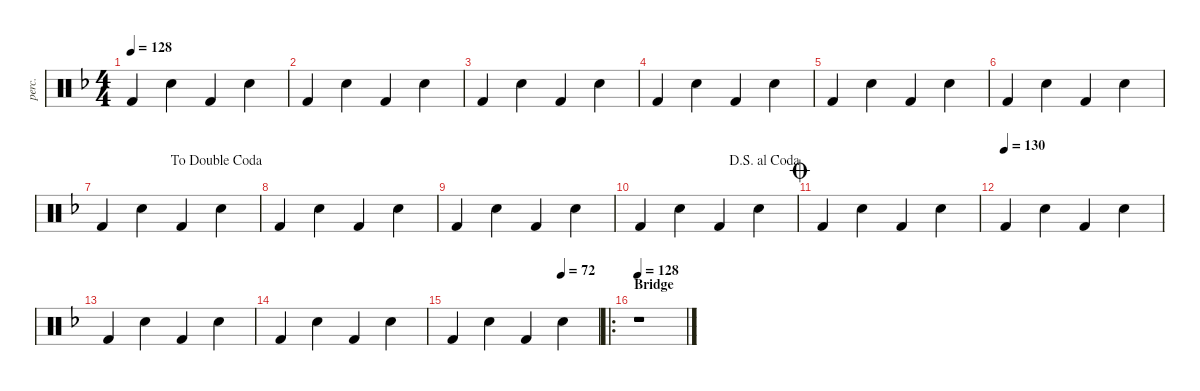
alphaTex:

\defaultSystemsLayout 2
\hideDynamics
\bracketExtendMode groupsimilarinstruments
\otherSystemsTrackNameOrientation horizontal
\track ("Guitar Percussion" "perc.") {instrument percussion}
\staff {score}
\articulation defaults
\ts (4 4)
\scale
1.04549
\tempo 128
\accidentals auto
\clef neutral
\ottava regular
\simile none
\ks dminor "Kick (hit) 2"{acc forcenatural}.4{dy mf} "Snare (hit) 2"{acc forcenatural}.4 "Kick (hit) 2"{acc forcenatural}.4 "Snare (hit) 2"{acc forcenatural}.4
|
\scale
0.954505 "Kick (hit) 2"{acc forcenatural}.4 "Snare (hit) 2"{acc forcenatural}.4 "Kick (hit) 2"{acc forcenatural}.4 "Snare (hit) 2"{acc forcenatural}.4 |
\scale
1.04549 "Kick (hit) 2"{acc forcenatural}.4 "Snare (hit) 2"{acc forcenatural}.4 "Kick (hit) 2"{acc forcenatural}.4 "Snare (hit) 2"{acc forcenatural}.4 |
\scale
0.954505 "Kick (hit) 2"{acc forcenatural}.4 "Snare (hit) 2"{acc forcenatural}.4 "Kick (hit) 2"{acc forcenatural}.4 "Snare (hit) 2"{acc forcenatural}.4 |
\scale
1.04549 "Kick (hit) 2"{acc forcenatural}.4 "Snare (hit) 2"{acc forcenatural}.4 "Kick (hit) 2"{acc forcenatural}.4 "Snare (hit) 2"{acc forcenatural}.4 |
\scale
0.954505 "Kick (hit) 2"{acc forcenatural}.4 "Snare (hit) 2"{acc forcenatural}.4 "Kick (hit) 2"{acc forcenatural}.4 "Snare (hit) 2"{acc forcenatural}.4 |
\scale
1.04549
\jump dadoublecoda "Kick (hit) 2"{acc forcenatural}.4 "Snare (hit) 2"{acc forcenatural}.4 "Kick (hit) 2"{acc forcenatural}.4 "Snare (hit) 2"{acc forcenatural}.4
|
\scale
0.954505 "Kick (hit) 2"{acc forcenatural}.4 "Snare (hit) 2"{acc forcenatural}.4 "Kick (hit) 2"{acc forcenatural}.4 "Snare (hit) 2"{acc forcenatural}.4 |
\scale
1.04549 "Kick (hit) 2"{acc forcenatural}.4 "Snare (hit) 2"{acc forcenatural}.4 "Kick (hit) 2"{acc forcenatural}.4 "Snare (hit) 2"{acc forcenatural}.4 |
\scale
0.954505
\jump dalsegnoalcoda "Kick (hit) 2"{acc forcenatural}.4 "Snare (hit) 2"{acc forcenatural}.4 "Kick (hit) 2"{acc forcenatural}.4 "Snare (hit) 2"{acc forcenatural}.4
|
\scale
1.04549
\jump coda "Kick (hit) 2"{acc forcenatural}.4 "Snare (hit) 2"{acc forcenatural}.4 "Kick (hit) 2"{acc forcenatural}.4 "Snare (hit) 2"{acc forcenatural}.4
|
\scale
0.954505
\tempo (130)
"Kick (hit) 2"{acc forcenatural}.4 "Snare (hit) 2"{acc forcenatural}.4 "Kick (hit) 2"{acc forcenatural}.4 "Snare (hit) 2"{acc forcenatural}.4 |
\scale
1.04549 "Kick (hit) 2"{acc forcenatural}.4 "Snare (hit) 2"{acc forcenatural}.4 "Kick (hit) 2"{acc forcenatural}.4 "Snare (hit) 2"{acc forcenatural}.4 |
\scale
0.954505 "Kick (hit) 2"{acc forcenatural}.4 "Snare (hit) 2"{acc forcenatural}.4 "Kick (hit) 2"{acc forcenatural}.4 "Snare (hit) 2"{acc forcenatural}.4 |
\scale
1.04499
\tempo (72 0.75)
"Kick (hit) 2"{acc forcenatural}.4 "Snare (hit) 2"{acc forcenatural}.4 "Kick (hit) 2"{acc forcenatural}.4 "Snare (hit) 2"{acc forcenatural}.4 |
\ro
\section ("" "Bridge")
\scale
0.955011
\tempo 128
r.1
